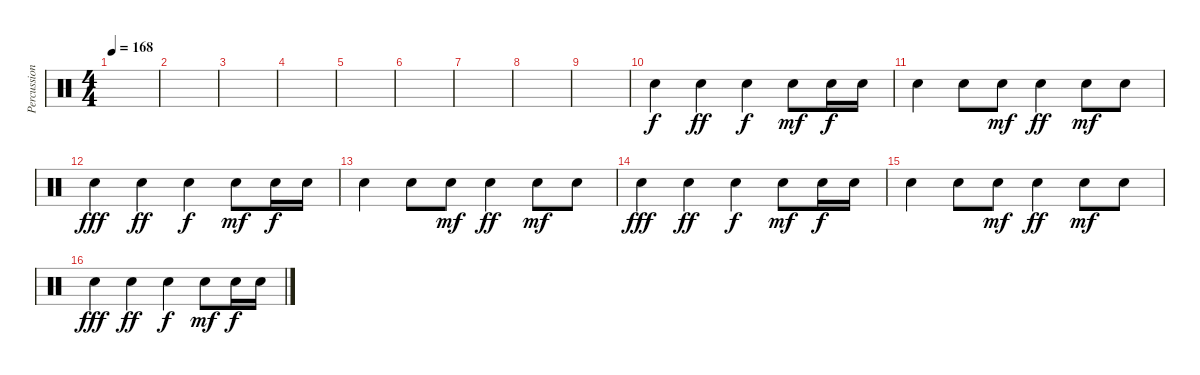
\track ("Percussion" "Percussion") {instrument percussion}
\staff {score}
\articulation defaults
\ts (4 4)
\tempo 168
\clef neutral
\ks c
|
|
|
|
|
|
|
|
|
"Snare (hit) 2".4{volume 1} "Snare (hit) 2".4{dy ff volume 3} "Snare (hit) 2".4{dy f} "Snare (hit) 2".8{dy mf} "Snare (hit) 2".16{dy f} "Snare (hit) 2".16 |
"Snare (hit) 2".4 "Snare (hit) 2".8 "Snare (hit) 2".8{dy mf} "Snare (hit) 2".4{dy ff} "Snare (hit) 2".8{dy mf} "Snare (hit) 2".8 |
"Snare (hit) 2".4{dy fff} "Snare (hit) 2".4{dy ff} "Snare (hit) 2".4{dy f} "Snare (hit) 2".8{dy mf} "Snare (hit) 2".16{dy f} "Snare (hit) 2".16 |
"Snare (hit) 2".4 "Snare (hit) 2".8 "Snare (hit) 2".8{dy mf} "Snare (hit) 2".4{dy ff} "Snare (hit) 2".8{dy mf} "Snare (hit) 2".8 |
"Snare (hit) 2".4{dy fff} "Snare (hit) 2".4{dy ff volume 7} "Snare (hit) 2".4{dy f} "Snare (hit) 2".8{dy mf} "Snare (hit) 2".16{dy f} "Snare (hit) 2".16 |
"Snare (hit) 2".4 "Snare (hit) 2".8 "Snare (hit) 2".8{dy mf} "Snare (hit) 2".4{dy ff} "Snare (hit) 2".8{dy mf} "Snare (hit) 2".8 |
"Snare (hit) 2".4{dy fff} "Snare (hit) 2".4{dy ff} "Snare (hit) 2".4{dy f} "Snare (hit) 2".8{dy mf} "Snare (hit) 2".16{dy f} "Snare (hit) 2".16
